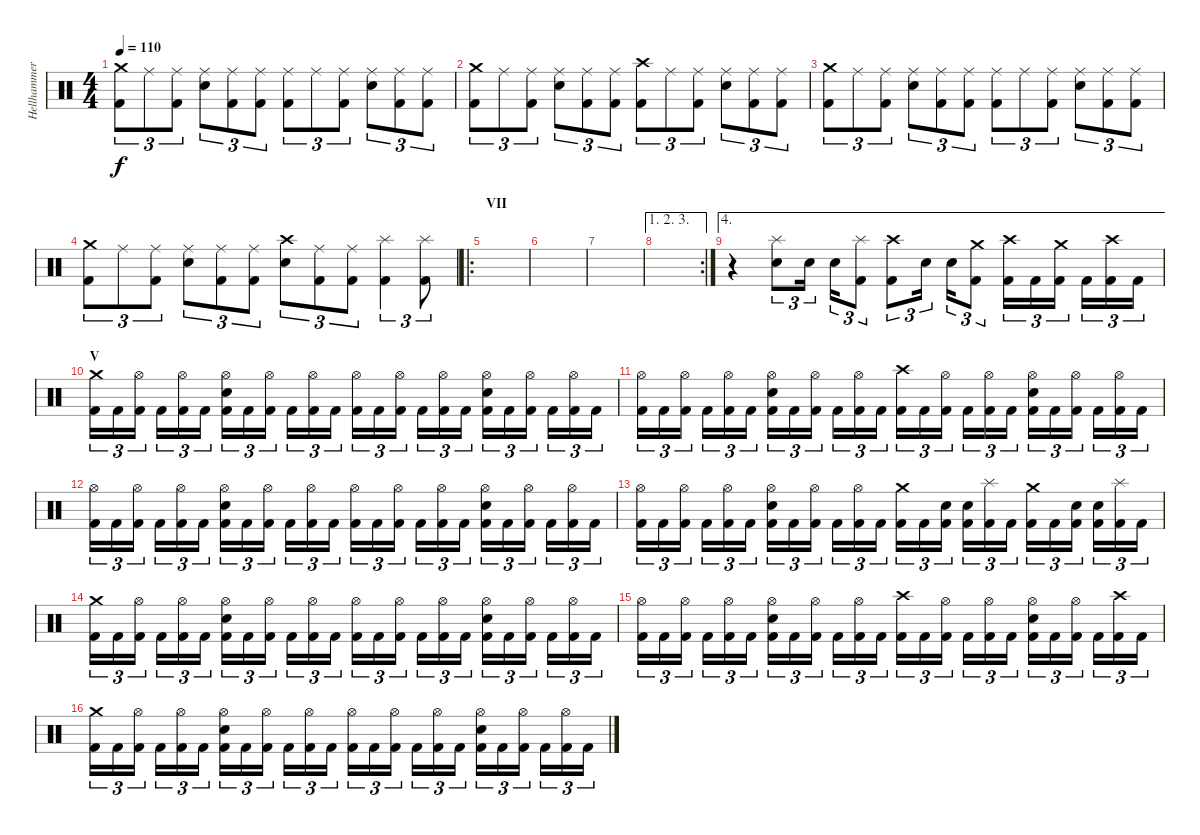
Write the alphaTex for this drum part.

\track ("Hellhammer" "Hellhammer") {instrument percussion}
\staff {score}
\articulation defaults
\ts (4 4)
\tempo 110
\clef neutral
\ks c
("Kick (hit) 2" "Crash medium (hit)").8{tu (3 2) dy f} "Ride (middle)".8{tu (3 2)} ("Kick (hit) 2" "Ride (middle)").8{tu (3 2)} ("Electric Snare (hit)" "Ride (middle)").8{tu (3 2)} ("Kick (hit) 2" "Ride (middle)").8{tu (3 2)} ("Kick (hit) 2" "Ride (middle)").8{tu (3 2)} ("Kick (hit) 2" "Ride (middle)").8{tu (3 2)} "Ride (middle)".8{tu (3 2)} ("Kick (hit) 2" "Ride (middle)").8{tu (3 2)} ("Electric Snare (hit)" "Ride (middle)").8{tu (3 2)} ("Kick (hit) 2" "Ride (middle)").8{tu (3 2)} ("Kick (hit) 2" "Ride (middle)").8{tu (3 2)} |
("Kick (hit) 2" "Crash medium (hit)").8{tu (3 2)} "Ride (middle)".8{tu (3 2)} ("Kick (hit) 2" "Ride (middle)").8{tu (3 2)} ("Electric Snare (hit)" "Ride (middle)").8{tu (3 2)} ("Kick (hit) 2" "Ride (middle)").8{tu (3 2)} ("Kick (hit) 2" "Ride (middle)").8{tu (3 2)} ("Kick (hit) 2" "Crash high (hit)").8{tu (3 2)} "Ride (middle)".8{tu (3 2)} ("Kick (hit) 2" "Ride (middle)").8{tu (3 2)} ("Electric Snare (hit)" "Ride (middle)").8{tu (3 2)} ("Kick (hit) 2" "Ride (middle)").8{tu (3 2)} ("Kick (hit) 2" "Ride (middle)").8{tu (3 2)} |
("Kick (hit) 2" "Crash medium (hit)").8{tu (3 2)} "Ride (middle)".8{tu (3 2)} ("Kick (hit) 2" "Ride (middle)").8{tu (3 2)} ("Electric Snare (hit)" "Ride (middle)").8{tu (3 2)} ("Kick (hit) 2" "Ride (middle)").8{tu (3 2)} ("Kick (hit) 2" "Ride (middle)").8{tu (3 2)} ("Kick (hit) 2" "Ride (middle)").8{tu (3 2)} "Ride (middle)".8{tu (3 2)} ("Kick (hit) 2" "Ride (middle)").8{tu (3 2)} ("Electric Snare (hit)" "Ride (middle)").8{tu (3 2)} ("Kick (hit) 2" "Ride (middle)").8{tu (3 2)} ("Kick (hit) 2" "Ride (middle)").8{tu (3 2)} |
("Kick (hit) 2" "Crash medium (hit)").8{tu (3 2)} "Ride (middle)".8{tu (3 2)} ("Kick (hit) 2" "Ride (middle)").8{tu (3 2)} ("Electric Snare (hit)" "Ride (middle)").8{tu (3 2)} ("Kick (hit) 2" "Ride (middle)").8{tu (3 2)} ("Kick (hit) 2" "Ride (middle)").8{tu (3 2)} ("Electric Snare (hit)" "Crash high (hit)").8{tu (3 2)} ("Kick (hit) 2" "Ride (middle)").8{tu (3 2)} ("Kick (hit) 2" "Ride (middle)").8{tu (3 2)} ("Kick (hit) 2" "Splash (hit)").4{tu (3 2)} ("Kick (hit) 2" "Splash (hit)").8{tu (3 2)} |
\ro
\section ("" "VII")
|
|
|
\ae (1 2 3)
\rc 2
|
\ae 4
r.4 ("Electric Snare (hit)" "Splash (hit)").8{tu (3 2)} "Electric Snare (hit)".16{tu (3 2)} "Electric Snare (hit)".16{tu (3 2)} ("Kick (hit) 2" "Splash (hit)").8{tu (3 2)} ("Kick (hit) 2" "Crash high (hit)").8{tu (3 2)} "Electric Snare (hit)".16{tu (3 2)} "Electric Snare (hit)".16{tu (3 2)} ("Kick (hit) 2" "Crash medium (hit)").8{tu (3 2)} ("Kick (hit) 2" "Crash high (hit)").16{tu (3 2)} "Kick (hit) 2".16{tu (3 2)} ("Kick (hit) 2" "Crash medium (hit)").16{tu (3 2)} "Kick (hit) 2".16{tu (3 2)} ("Kick (hit) 2" "Crash high (hit)").16{tu (3 2)} "Kick (hit) 2".16{tu (3 2)} |
\section ("" "V")
("Kick (hit) 2" "Crash medium (hit)").16{tu (3 2)} "Kick (hit) 2".16{tu (3 2)} ("Kick (hit) 2" "Hi-Hat (open)").16{tu (3 2)} "Kick (hit) 2".16{tu (3 2)} ("Kick (hit) 2" "Hi-Hat (open)").16{tu (3 2)} "Kick (hit) 2".16{tu (3 2)} ("Kick (hit) 2" "Electric Snare (hit)" "Hi-Hat (open)").16{tu (3 2)} "Kick (hit) 2".16{tu (3 2)} ("Kick (hit) 2" "Hi-Hat (open)").16{tu (3 2)} "Kick (hit) 2".16{tu (3 2)} ("Kick (hit) 2" "Hi-Hat (open)").16{tu (3 2)} "Kick (hit) 2".16{tu (3 2)} ("Kick (hit) 2" "Hi-Hat (open)").16{tu (3 2)} "Kick (hit) 2".16{tu (3 2)} ("Kick (hit) 2" "Hi-Hat (open)").16{tu (3 2)} "Kick (hit) 2".16{tu (3 2)} ("Kick (hit) 2" "Hi-Hat (open)").16{tu (3 2)} "Kick (hit) 2".16{tu (3 2)} ("Kick (hit) 2" "Electric Snare (hit)" "Hi-Hat (open)").16{tu (3 2)} "Kick (hit) 2".16{tu (3 2)} ("Kick (hit) 2" "Hi-Hat (open)").16{tu (3 2)} "Kick (hit) 2".16{tu (3 2)} ("Kick (hit) 2" "Hi-Hat (open)").16{tu (3 2)} "Kick (hit) 2".16{tu (3 2)} |
("Kick (hit) 2" "Hi-Hat (open)").16{tu (3 2)} "Kick (hit) 2".16{tu (3 2)} ("Kick (hit) 2" "Hi-Hat (open)").16{tu (3 2)} "Kick (hit) 2".16{tu (3 2)} ("Kick (hit) 2" "Hi-Hat (open)").16{tu (3 2)} "Kick (hit) 2".16{tu (3 2)} ("Kick (hit) 2" "Electric Snare (hit)" "Hi-Hat (open)").16{tu (3 2)} "Kick (hit) 2".16{tu (3 2)} ("Kick (hit) 2" "Hi-Hat (open)").16{tu (3 2)} "Kick (hit) 2".16{tu (3 2)} ("Kick (hit) 2" "Hi-Hat (open)").16{tu (3 2)} "Kick (hit) 2".16{tu (3 2)} ("Kick (hit) 2" "Crash high (hit)").16{tu (3 2)} "Kick (hit) 2".16{tu (3 2)} ("Kick (hit) 2" "Hi-Hat (open)").16{tu (3 2)} "Kick (hit) 2".16{tu (3 2)} ("Kick (hit) 2" "Hi-Hat (open)").16{tu (3 2)} "Kick (hit) 2".16{tu (3 2)} ("Kick (hit) 2" "Electric Snare (hit)" "Hi-Hat (open)").16{tu (3 2)} "Kick (hit) 2".16{tu (3 2)} ("Kick (hit) 2" "Hi-Hat (open)").16{tu (3 2)} "Kick (hit) 2".16{tu (3 2)} ("Kick (hit) 2" "Hi-Hat (open)").16{tu (3 2)} "Kick (hit) 2".16{tu (3 2)} |
("Kick (hit) 2" "Hi-Hat (open)").16{tu (3 2)} "Kick (hit) 2".16{tu (3 2)} ("Kick (hit) 2" "Hi-Hat (open)").16{tu (3 2)} "Kick (hit) 2".16{tu (3 2)} ("Kick (hit) 2" "Hi-Hat (open)").16{tu (3 2)} "Kick (hit) 2".16{tu (3 2)} ("Kick (hit) 2" "Electric Snare (hit)" "Hi-Hat (open)").16{tu (3 2)} "Kick (hit) 2".16{tu (3 2)} ("Kick (hit) 2" "Hi-Hat (open)").16{tu (3 2)} "Kick (hit) 2".16{tu (3 2)} ("Kick (hit) 2" "Hi-Hat (open)").16{tu (3 2)} "Kick (hit) 2".16{tu (3 2)} ("Kick (hit) 2" "Hi-Hat (open)").16{tu (3 2)} "Kick (hit) 2".16{tu (3 2)} ("Kick (hit) 2" "Hi-Hat (open)").16{tu (3 2)} "Kick (hit) 2".16{tu (3 2)} ("Kick (hit) 2" "Hi-Hat (open)").16{tu (3 2)} "Kick (hit) 2".16{tu (3 2)} ("Kick (hit) 2" "Electric Snare (hit)" "Hi-Hat (open)").16{tu (3 2)} "Kick (hit) 2".16{tu (3 2)} ("Kick (hit) 2" "Hi-Hat (open)").16{tu (3 2)} "Kick (hit) 2".16{tu (3 2)} ("Kick (hit) 2" "Hi-Hat (open)").16{tu (3 2)} "Kick (hit) 2".16{tu (3 2)} |
("Kick (hit) 2" "Hi-Hat (open)").16{tu (3 2)} "Kick (hit) 2".16{tu (3 2)} ("Kick (hit) 2" "Hi-Hat (open)").16{tu (3 2)} "Kick (hit) 2".16{tu (3 2)} ("Kick (hit) 2" "Hi-Hat (open)").16{tu (3 2)} "Kick (hit) 2".16{tu (3 2)} ("Kick (hit) 2" "Electric Snare (hit)" "Hi-Hat (open)").16{tu (3 2)} "Kick (hit) 2".16{tu (3 2)} ("Kick (hit) 2" "Hi-Hat (open)").16{tu (3 2)} "Kick (hit) 2".16{tu (3 2)} ("Kick (hit) 2" "Hi-Hat (open)").16{tu (3 2)} "Kick (hit) 2".16{tu (3 2)} ("Kick (hit) 2" "Crash medium (hit)").16{tu (3 2)} "Kick (hit) 2".16{tu (3 2)} ("Kick (hit) 2" "Electric Snare (hit)").16{tu (3 2)} ("Kick (hit) 2" "Electric Snare (hit)").16{tu (3 2)} ("Kick (hit) 2" "Splash (hit)").16{tu (3 2)} "Kick (hit) 2".16{tu (3 2)} ("Kick (hit) 2" "Crash medium (hit)").16{tu (3 2)} "Kick (hit) 2".16{tu (3 2)} ("Kick (hit) 2" "Electric Snare (hit)").16{tu (3 2)} ("Kick (hit) 2" "Electric Snare (hit)").16{tu (3 2)} ("Kick (hit) 2" "Splash (hit)").16{tu (3 2)} "Kick (hit) 2".16{tu (3 2)} |
("Kick (hit) 2" "Crash medium (hit)").16{tu (3 2)} "Kick (hit) 2".16{tu (3 2)} ("Kick (hit) 2" "Hi-Hat (open)").16{tu (3 2)} "Kick (hit) 2".16{tu (3 2)} ("Kick (hit) 2" "Hi-Hat (open)").16{tu (3 2)} "Kick (hit) 2".16{tu (3 2)} ("Kick (hit) 2" "Electric Snare (hit)" "Hi-Hat (open)").16{tu (3 2)} "Kick (hit) 2".16{tu (3 2)} ("Kick (hit) 2" "Hi-Hat (open)").16{tu (3 2)} "Kick (hit) 2".16{tu (3 2)} ("Kick (hit) 2" "Hi-Hat (open)").16{tu (3 2)} "Kick (hit) 2".16{tu (3 2)} ("Kick (hit) 2" "Hi-Hat (open)").16{tu (3 2)} "Kick (hit) 2".16{tu (3 2)} ("Kick (hit) 2" "Hi-Hat (open)").16{tu (3 2)} "Kick (hit) 2".16{tu (3 2)} ("Kick (hit) 2" "Hi-Hat (open)").16{tu (3 2)} "Kick (hit) 2".16{tu (3 2)} ("Kick (hit) 2" "Electric Snare (hit)" "Hi-Hat (open)").16{tu (3 2)} "Kick (hit) 2".16{tu (3 2)} ("Kick (hit) 2" "Hi-Hat (open)").16{tu (3 2)} "Kick (hit) 2".16{tu (3 2)} ("Kick (hit) 2" "Hi-Hat (open)").16{tu (3 2)} "Kick (hit) 2".16{tu (3 2)} |
("Kick (hit) 2" "Hi-Hat (open)").16{tu (3 2)} "Kick (hit) 2".16{tu (3 2)} ("Kick (hit) 2" "Hi-Hat (open)").16{tu (3 2)} "Kick (hit) 2".16{tu (3 2)} ("Kick (hit) 2" "Hi-Hat (open)").16{tu (3 2)} "Kick (hit) 2".16{tu (3 2)} ("Kick (hit) 2" "Electric Snare (hit)" "Hi-Hat (open)").16{tu (3 2)} "Kick (hit) 2".16{tu (3 2)} ("Kick (hit) 2" "Hi-Hat (open)").16{tu (3 2)} "Kick (hit) 2".16{tu (3 2)} ("Kick (hit) 2" "Hi-Hat (open)").16{tu (3 2)} "Kick (hit) 2".16{tu (3 2)} ("Kick (hit) 2" "Crash high (hit)").16{tu (3 2)} "Kick (hit) 2".16{tu (3 2)} ("Kick (hit) 2" "Hi-Hat (open)").16{tu (3 2)} "Kick (hit) 2".16{tu (3 2)} ("Kick (hit) 2" "Hi-Hat (open)").16{tu (3 2)} "Kick (hit) 2".16{tu (3 2)} ("Kick (hit) 2" "Electric Snare (hit)" "Hi-Hat (open)").16{tu (3 2)} "Kick (hit) 2".16{tu (3 2)} ("Kick (hit) 2" "Hi-Hat (open)").16{tu (3 2)} "Kick (hit) 2".16{tu (3 2)} ("Kick (hit) 2" "Crash high (hit)").16{tu (3 2)} "Kick (hit) 2".16{tu (3 2)} |
("Kick (hit) 2" "Crash medium (hit)").16{tu (3 2)} "Kick (hit) 2".16{tu (3 2)} ("Kick (hit) 2" "Hi-Hat (open)").16{tu (3 2)} "Kick (hit) 2".16{tu (3 2)} ("Kick (hit) 2" "Hi-Hat (open)").16{tu (3 2)} "Kick (hit) 2".16{tu (3 2)} ("Kick (hit) 2" "Electric Snare (hit)" "Hi-Hat (open)").16{tu (3 2)} "Kick (hit) 2".16{tu (3 2)} ("Kick (hit) 2" "Hi-Hat (open)").16{tu (3 2)} "Kick (hit) 2".16{tu (3 2)} ("Kick (hit) 2" "Hi-Hat (open)").16{tu (3 2)} "Kick (hit) 2".16{tu (3 2)} ("Kick (hit) 2" "Hi-Hat (open)").16{tu (3 2)} "Kick (hit) 2".16{tu (3 2)} ("Kick (hit) 2" "Hi-Hat (open)").16{tu (3 2)} "Kick (hit) 2".16{tu (3 2)} ("Kick (hit) 2" "Hi-Hat (open)").16{tu (3 2)} "Kick (hit) 2".16{tu (3 2)} ("Kick (hit) 2" "Electric Snare (hit)" "Hi-Hat (open)").16{tu (3 2)} "Kick (hit) 2".16{tu (3 2)} ("Kick (hit) 2" "Hi-Hat (open)").16{tu (3 2)} "Kick (hit) 2".16{tu (3 2)} ("Kick (hit) 2" "Hi-Hat (open)").16{tu (3 2)} "Kick (hit) 2".16{tu (3 2)}
